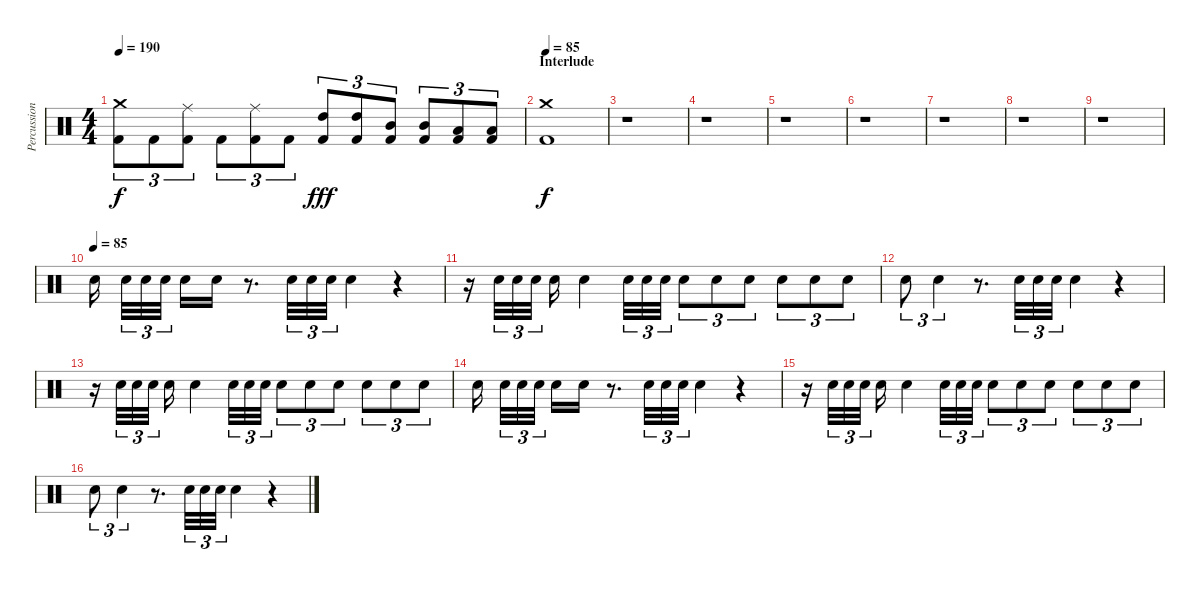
\track ("Percussion" "Percussion") {instrument percussion}
\staff {score}
\articulation defaults
\ts (4 4)
\tempo 190
\clef neutral
\ks c
("Kick (hit) 2" "Crash medium (hit)").8{tu (3 2) dy f} "Kick (hit) 2".8{tu (3 2)} ("Kick (hit) 2" "Ride (middle)").8{tu (3 2)} "Kick (hit) 2".8{tu (3 2)} ("Kick (hit) 2" "Ride (middle)").8{tu (3 2)} "Kick (hit) 2".8{tu (3 2)} ("Kick (hit) 2" "High Tom (hit)").8{tu (3 2) dy fff} ("Kick (hit) 2" "High Tom (hit)").8{tu (3 2)} ("Kick (hit) 2" "Mid Tom (hit)").8{tu (3 2)} ("Kick (hit) 2" "Mid Tom (hit)").8{tu (3 2)} ("Kick (hit) 2" "Low Tom (hit)").8{tu (3 2)} ("Kick (hit) 2" "Low Tom (hit)").8{tu (3 2)} |
\section ("" "Interlude")
\tempo 85
("Kick (hit) 2" "Crash medium (hit)").1{dy f} |
r.1 |
r.1 |
r.1 |
r.1 |
r.1 |
r.1 |
r.1 |
\tempo (85)
"Electric Snare (hit)".16{volume 6} "Electric Snare (hit)".32{tu (3 2)} "Electric Snare (hit)".32{tu (3 2)} "Electric Snare (hit)".32{tu (3 2)} "Electric Snare (hit)".16 "Electric Snare (hit)".16 r.8{d} "Electric Snare (hit)".32{tu (3 2)} "Electric Snare (hit)".32{tu (3 2)} "Electric Snare (hit)".32{tu (3 2)} "Electric Snare (hit)".4 r.4 |
r.16 "Electric Snare (hit)".32{tu (3 2)} "Electric Snare (hit)".32{tu (3 2)} "Electric Snare (hit)".32{tu (3 2)} "Electric Snare (hit)".16 "Electric Snare (hit)".4 "Electric Snare (hit)".32{tu (3 2)} "Electric Snare (hit)".32{tu (3 2)} "Electric Snare (hit)".32{tu (3 2)} "Electric Snare (hit)".8{tu (3 2)} "Electric Snare (hit)".8{tu (3 2)} "Electric Snare (hit)".8{tu (3 2)} "Electric Snare (hit)".8{tu (3 2)} "Electric Snare (hit)".8{tu (3 2)} "Electric Snare (hit)".8{tu (3 2)} |
"Electric Snare (hit)".8{tu (3 2)} "Electric Snare (hit)".4{tu (3 2)} r.8{d} "Electric Snare (hit)".32{tu (3 2)} "Electric Snare (hit)".32{tu (3 2)} "Electric Snare (hit)".32{tu (3 2)} "Electric Snare (hit)".4 r.4 |
r.16 "Electric Snare (hit)".32{tu (3 2)} "Electric Snare (hit)".32{tu (3 2)} "Electric Snare (hit)".32{tu (3 2)} "Electric Snare (hit)".16 "Electric Snare (hit)".4 "Electric Snare (hit)".32{tu (3 2)} "Electric Snare (hit)".32{tu (3 2)} "Electric Snare (hit)".32{tu (3 2)} "Electric Snare (hit)".8{tu (3 2)} "Electric Snare (hit)".8{tu (3 2)} "Electric Snare (hit)".8{tu (3 2)} "Electric Snare (hit)".8{tu (3 2)} "Electric Snare (hit)".8{tu (3 2)} "Electric Snare (hit)".8{tu (3 2)} |
"Electric Snare (hit)".16 "Electric Snare (hit)".32{tu (3 2)} "Electric Snare (hit)".32{tu (3 2)} "Electric Snare (hit)".32{tu (3 2)} "Electric Snare (hit)".16 "Electric Snare (hit)".16 r.8{d} "Electric Snare (hit)".32{tu (3 2)} "Electric Snare (hit)".32{tu (3 2)} "Electric Snare (hit)".32{tu (3 2)} "Electric Snare (hit)".4 r.4 |
r.16 "Electric Snare (hit)".32{tu (3 2)} "Electric Snare (hit)".32{tu (3 2)} "Electric Snare (hit)".32{tu (3 2)} "Electric Snare (hit)".16 "Electric Snare (hit)".4 "Electric Snare (hit)".32{tu (3 2)} "Electric Snare (hit)".32{tu (3 2)} "Electric Snare (hit)".32{tu (3 2)} "Electric Snare (hit)".8{tu (3 2)} "Electric Snare (hit)".8{tu (3 2)} "Electric Snare (hit)".8{tu (3 2)} "Electric Snare (hit)".8{tu (3 2)} "Electric Snare (hit)".8{tu (3 2)} "Electric Snare (hit)".8{tu (3 2)} |
"Electric Snare (hit)".8{tu (3 2)} "Electric Snare (hit)".4{tu (3 2)} r.8{d} "Electric Snare (hit)".32{tu (3 2)} "Electric Snare (hit)".32{tu (3 2)} "Electric Snare (hit)".32{tu (3 2)} "Electric Snare (hit)".4 r.4
